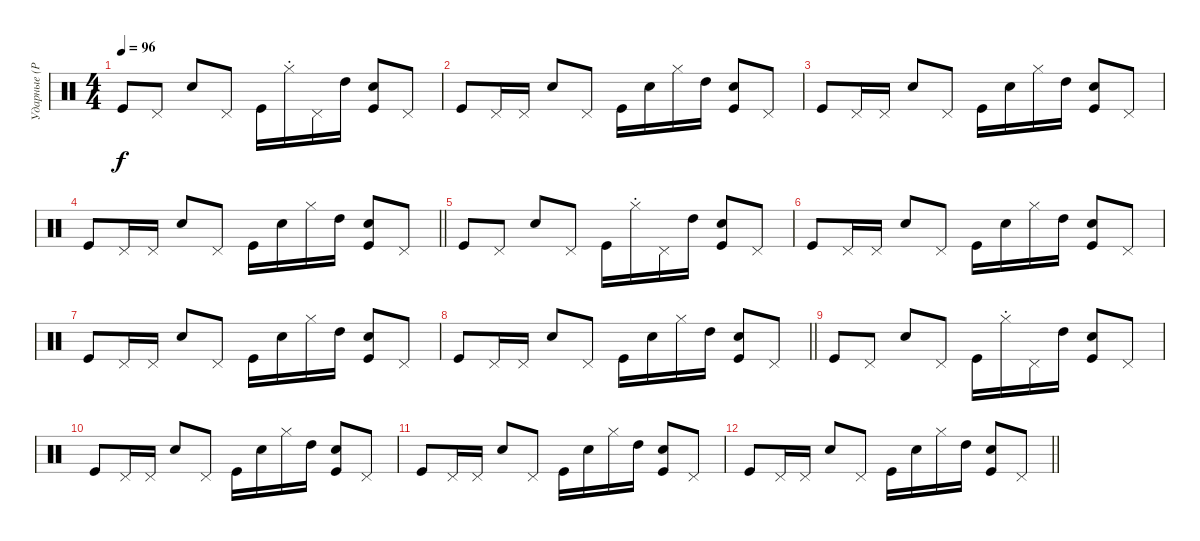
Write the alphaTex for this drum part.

\track ("Ударные (Phil Collins)" "Ударные (P") {instrument percussion}
\staff {score}
\articulation defaults
\ts (4 4)
\tempo 96
\clef neutral
\ks c "Kick (hit)".8{dy f} "Pedal Hi-Hat (hit)".8 "Electric Snare (hit)".8 "Pedal Hi-Hat (hit)".8 "Kick (hit)".16 "Hi-Hat (closed)"{st}.16 "Pedal Hi-Hat (hit)".16 "High Tom (hit)".16
("Electric Snare (hit)" "Kick (hit)").8 "Pedal Hi-Hat (hit)".8 |
"Kick (hit)".8 "Pedal Hi-Hat (hit)".16 "Pedal Hi-Hat (hit)".16 "Electric Snare (hit)".8 "Pedal Hi-Hat (hit)".8 "Kick (hit)".16 "Electric Snare (hit)".16 "Hi-Hat (closed)".16 "High Tom (hit)".16 ("Electric Snare (hit)" "Kick (hit)").8 "Pedal Hi-Hat (hit)".8 |
"Kick (hit)".8 "Pedal Hi-Hat (hit)".16 "Pedal Hi-Hat (hit)".16 "Electric Snare (hit)".8 "Pedal Hi-Hat (hit)".8 "Kick (hit)".16 "Electric Snare (hit)".16 "Hi-Hat (closed)".16 "High Tom (hit)".16 ("Electric Snare (hit)" "Kick (hit)").8 "Pedal Hi-Hat (hit)".8 |
\barLineRight lightlight "Kick (hit)".8 "Pedal Hi-Hat (hit)".16 "Pedal Hi-Hat (hit)".16 "Electric Snare (hit)".8 "Pedal Hi-Hat (hit)".8 "Kick (hit)".16 "Electric Snare (hit)".16 "Hi-Hat (closed)".16 "High Tom (hit)".16
("Electric Snare (hit)" "Kick (hit)").8 "Pedal Hi-Hat (hit)".8 |
"Kick (hit)".8 "Pedal Hi-Hat (hit)".8 "Electric Snare (hit)".8 "Pedal Hi-Hat (hit)".8 "Kick (hit)".16 "Hi-Hat (closed)"{st}.16 "Pedal Hi-Hat (hit)".16 "High Tom (hit)".16 ("Electric Snare (hit)" "Kick (hit)").8 "Pedal Hi-Hat (hit)".8 |
"Kick (hit)".8 "Pedal Hi-Hat (hit)".16 "Pedal Hi-Hat (hit)".16 "Electric Snare (hit)".8 "Pedal Hi-Hat (hit)".8 "Kick (hit)".16 "Electric Snare (hit)".16 "Hi-Hat (closed)".16 "High Tom (hit)".16 ("Electric Snare (hit)" "Kick (hit)").8 "Pedal Hi-Hat (hit)".8 |
"Kick (hit)".8 "Pedal Hi-Hat (hit)".16 "Pedal Hi-Hat (hit)".16 "Electric Snare (hit)".8 "Pedal Hi-Hat (hit)".8 "Kick (hit)".16 "Electric Snare (hit)".16 "Hi-Hat (closed)".16 "High Tom (hit)".16 ("Electric Snare (hit)" "Kick (hit)").8 "Pedal Hi-Hat (hit)".8 |
\barLineRight lightlight "Kick (hit)".8 "Pedal Hi-Hat (hit)".16 "Pedal Hi-Hat (hit)".16 "Electric Snare (hit)".8 "Pedal Hi-Hat (hit)".8 "Kick (hit)".16 "Electric Snare (hit)".16 "Hi-Hat (closed)".16 "High Tom (hit)".16
("Electric Snare (hit)" "Kick (hit)").8 "Pedal Hi-Hat (hit)".8 |
"Kick (hit)".8 "Pedal Hi-Hat (hit)".8 "Electric Snare (hit)".8 "Pedal Hi-Hat (hit)".8 "Kick (hit)".16 "Hi-Hat (closed)"{st}.16 "Pedal Hi-Hat (hit)".16 "High Tom (hit)".16 ("Electric Snare (hit)" "Kick (hit)").8 "Pedal Hi-Hat (hit)".8 |
"Kick (hit)".8 "Pedal Hi-Hat (hit)".16 "Pedal Hi-Hat (hit)".16 "Electric Snare (hit)".8 "Pedal Hi-Hat (hit)".8 "Kick (hit)".16 "Electric Snare (hit)".16 "Hi-Hat (closed)".16 "High Tom (hit)".16 ("Electric Snare (hit)" "Kick (hit)").8 "Pedal Hi-Hat (hit)".8 |
"Kick (hit)".8 "Pedal Hi-Hat (hit)".16 "Pedal Hi-Hat (hit)".16 "Electric Snare (hit)".8 "Pedal Hi-Hat (hit)".8 "Kick (hit)".16 "Electric Snare (hit)".16 "Hi-Hat (closed)".16 "High Tom (hit)".16 ("Electric Snare (hit)" "Kick (hit)").8 "Pedal Hi-Hat (hit)".8 |
\barLineRight lightlight "Kick (hit)".8 "Pedal Hi-Hat (hit)".16 "Pedal Hi-Hat (hit)".16 "Electric Snare (hit)".8 "Pedal Hi-Hat (hit)".8 "Kick (hit)".16 "Electric Snare (hit)".16 "Hi-Hat (closed)".16 "High Tom (hit)".16
("Electric Snare (hit)" "Kick (hit)").8 "Pedal Hi-Hat (hit)".8
